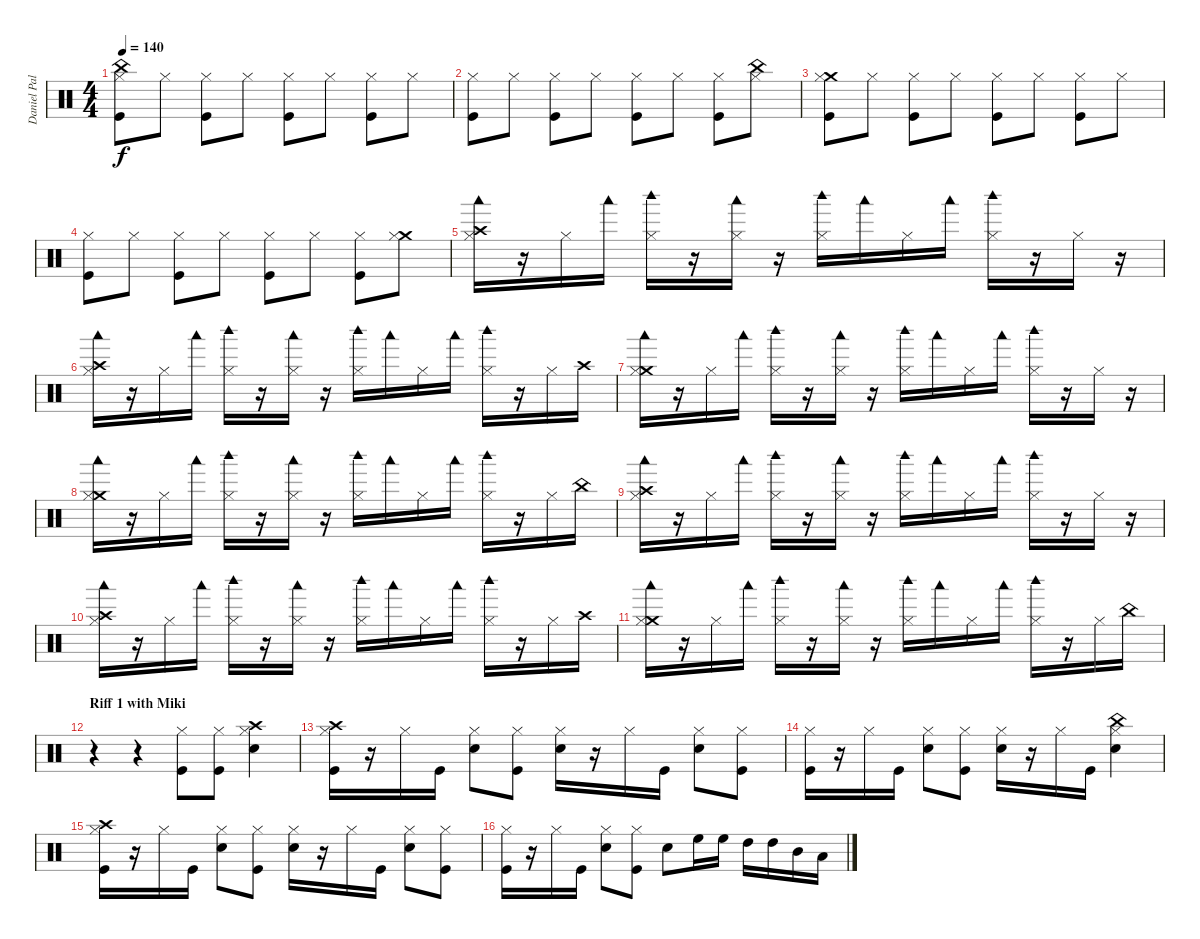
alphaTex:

\track ("Daniel Pal" "Daniel Pal") {instrument percussion}
\staff {score}
\articulation defaults
\ts (4 4)
\tempo 140
\clef neutral
\ks c
("China (hit)" "Hi-Hat (closed)" "Kick (hit)").8{dy f} "Hi-Hat (closed)".8 ("Hi-Hat (closed)" "Kick (hit)").8 "Hi-Hat (closed)".8 ("Hi-Hat (closed)" "Kick (hit)").8 "Hi-Hat (closed)".8 ("Hi-Hat (closed)" "Kick (hit)").8 "Hi-Hat (closed)".8 |
("Hi-Hat (closed)" "Kick (hit)").8 "Hi-Hat (closed)".8 ("Hi-Hat (closed)" "Kick (hit)").8 "Hi-Hat (closed)".8 ("Hi-Hat (closed)" "Kick (hit)").8 "Hi-Hat (closed)".8 ("Hi-Hat (closed)" "Kick (hit)").8 ("China (hit)" "Hi-Hat (closed)").8 |
("Crash medium (hit)" "Hi-Hat (closed)" "Kick (hit)").8 "Hi-Hat (closed)".8 ("Hi-Hat (closed)" "Kick (hit)").8 "Hi-Hat (closed)".8 ("Hi-Hat (closed)" "Kick (hit)").8 "Hi-Hat (closed)".8 ("Hi-Hat (closed)" "Kick (hit)").8 "Hi-Hat (closed)".8 |
("Hi-Hat (closed)" "Kick (hit)").8 "Hi-Hat (closed)".8 ("Hi-Hat (closed)" "Kick (hit)").8 "Hi-Hat (closed)".8 ("Hi-Hat (closed)" "Kick (hit)").8 "Hi-Hat (closed)".8 ("Hi-Hat (closed)" "Kick (hit)").8 ("Crash medium (hit)" "Hi-Hat (closed)").8 |
("Crash high (hit)" "Woodblock low (hit)" "Hi-Hat (closed)").16 r.16 "Hi-Hat (closed)".16 "Woodblock low (hit)".16 ("Woodblock high (hit)" "Hi-Hat (closed)").16 r.16 ("Woodblock low (hit)" "Hi-Hat (closed)").16 r.16 ("Woodblock high (hit)" "Hi-Hat (closed)").16 "Woodblock low (hit)".16 "Hi-Hat (closed)".16 "Woodblock low (hit)".16 ("Woodblock high (hit)" "Hi-Hat (closed)").16 r.16 "Hi-Hat (closed)".16 r.16 |
("Crash high (hit)" "Woodblock low (hit)" "Hi-Hat (closed)").16 r.16 "Hi-Hat (closed)".16 "Woodblock low (hit)".16 ("Woodblock high (hit)" "Hi-Hat (closed)").16 r.16 ("Woodblock low (hit)" "Hi-Hat (closed)").16 r.16 ("Woodblock high (hit)" "Hi-Hat (closed)").16 "Woodblock low (hit)".16 "Hi-Hat (closed)".16 "Woodblock low (hit)".16 ("Woodblock high (hit)" "Hi-Hat (closed)").16 r.16 "Hi-Hat (closed)".16 "Crash high (hit)".16 |
("Crash medium (hit)" "Woodblock low (hit)" "Hi-Hat (closed)").16 r.16 "Hi-Hat (closed)".16 "Woodblock low (hit)".16 ("Woodblock high (hit)" "Hi-Hat (closed)").16 r.16 ("Woodblock low (hit)" "Hi-Hat (closed)").16 r.16 ("Woodblock high (hit)" "Hi-Hat (closed)").16 "Woodblock low (hit)".16 "Hi-Hat (closed)".16 "Woodblock low (hit)".16 ("Woodblock high (hit)" "Hi-Hat (closed)").16 r.16 "Hi-Hat (closed)".16 r.16 |
("Crash medium (hit)" "Woodblock low (hit)" "Hi-Hat (closed)").16 r.16 "Hi-Hat (closed)".16 "Woodblock low (hit)".16 ("Woodblock high (hit)" "Hi-Hat (closed)").16 r.16 ("Woodblock low (hit)" "Hi-Hat (closed)").16 r.16 ("Woodblock high (hit)" "Hi-Hat (closed)").16 "Woodblock low (hit)".16 "Hi-Hat (closed)".16 "Woodblock low (hit)".16 ("Woodblock high (hit)" "Hi-Hat (closed)").16 r.16 "Hi-Hat (closed)".16 "China (hit)".16 |
("Crash high (hit)" "Woodblock low (hit)" "Hi-Hat (closed)").16 r.16 "Hi-Hat (closed)".16 "Woodblock low (hit)".16 ("Woodblock high (hit)" "Hi-Hat (closed)").16 r.16 ("Woodblock low (hit)" "Hi-Hat (closed)").16 r.16 ("Woodblock high (hit)" "Hi-Hat (closed)").16 "Woodblock low (hit)".16 "Hi-Hat (closed)".16 "Woodblock low (hit)".16 ("Woodblock high (hit)" "Hi-Hat (closed)").16 r.16 "Hi-Hat (closed)".16 r.16 |
("Crash high (hit)" "Woodblock low (hit)" "Hi-Hat (closed)").16 r.16 "Hi-Hat (closed)".16 "Woodblock low (hit)".16 ("Woodblock high (hit)" "Hi-Hat (closed)").16 r.16 ("Woodblock low (hit)" "Hi-Hat (closed)").16 r.16 ("Woodblock high (hit)" "Hi-Hat (closed)").16 "Woodblock low (hit)".16 "Hi-Hat (closed)".16 "Woodblock low (hit)".16 ("Woodblock high (hit)" "Hi-Hat (closed)").16 r.16 "Hi-Hat (closed)".16 "Crash high (hit)".16 |
("Crash medium (hit)" "Woodblock low (hit)" "Hi-Hat (closed)").16 r.16 "Hi-Hat (closed)".16 "Woodblock low (hit)".16 ("Woodblock high (hit)" "Hi-Hat (closed)").16 r.16 ("Woodblock low (hit)" "Hi-Hat (closed)").16 r.16 ("Woodblock high (hit)" "Hi-Hat (closed)").16 "Woodblock low (hit)".16 "Hi-Hat (closed)".16 "Woodblock low (hit)".16 ("Woodblock high (hit)" "Hi-Hat (closed)").16 r.16 "Hi-Hat (closed)".16 "China (hit)".16 |
\section ("" "Riff 1 with Miki")
r.4 r.4 ("Hi-Hat (closed)" "Kick (hit)").8 ("Hi-Hat (closed)" "Kick (hit)").8 ("Crash high (hit)" "Hi-Hat (closed)" "Electric Snare (hit)").4 |
("Crash high (hit)" "Hi-Hat (closed)" "Kick (hit)").16 r.16 "Hi-Hat (closed)".16 "Kick (hit)".16 ("Hi-Hat (closed)" "Electric Snare (hit)").8 ("Hi-Hat (closed)" "Kick (hit)").8 ("Hi-Hat (closed)" "Electric Snare (hit)").16 r.16 "Hi-Hat (closed)".16 "Kick (hit)".16 ("Hi-Hat (closed)" "Electric Snare (hit)").8 ("Hi-Hat (closed)" "Kick (hit)").8 |
("Hi-Hat (closed)" "Kick (hit)").16 r.16 "Hi-Hat (closed)".16 "Kick (hit)".16 ("Hi-Hat (closed)" "Electric Snare (hit)").8 ("Hi-Hat (closed)" "Kick (hit)").8 ("Hi-Hat (closed)" "Electric Snare (hit)").16 r.16 "Hi-Hat (closed)".16 "Kick (hit)".16 ("China (hit)" "Hi-Hat (closed)" "Electric Snare (hit)").4 |
("Crash high (hit)" "Hi-Hat (closed)" "Kick (hit)").16 r.16 "Hi-Hat (closed)".16 "Kick (hit)".16 ("Hi-Hat (closed)" "Electric Snare (hit)").8 ("Hi-Hat (closed)" "Kick (hit)").8 ("Hi-Hat (closed)" "Electric Snare (hit)").16 r.16 "Hi-Hat (closed)".16 "Kick (hit)".16 ("Hi-Hat (closed)" "Electric Snare (hit)").8 ("Hi-Hat (closed)" "Kick (hit)").8 |
("Hi-Hat (closed)" "Kick (hit)").16 r.16 "Hi-Hat (closed)".16 "Kick (hit)".16 ("Hi-Hat (closed)" "Electric Snare (hit)").8 ("Hi-Hat (closed)" "Kick (hit)").8 "Electric Snare (hit)".8 "High Floor Tom (hit)".16 "High Floor Tom (hit)".16 "High Tom (hit)".16 "High Tom (hit)".16 "Mid Tom (hit)".16 "Low Tom (hit)".16
